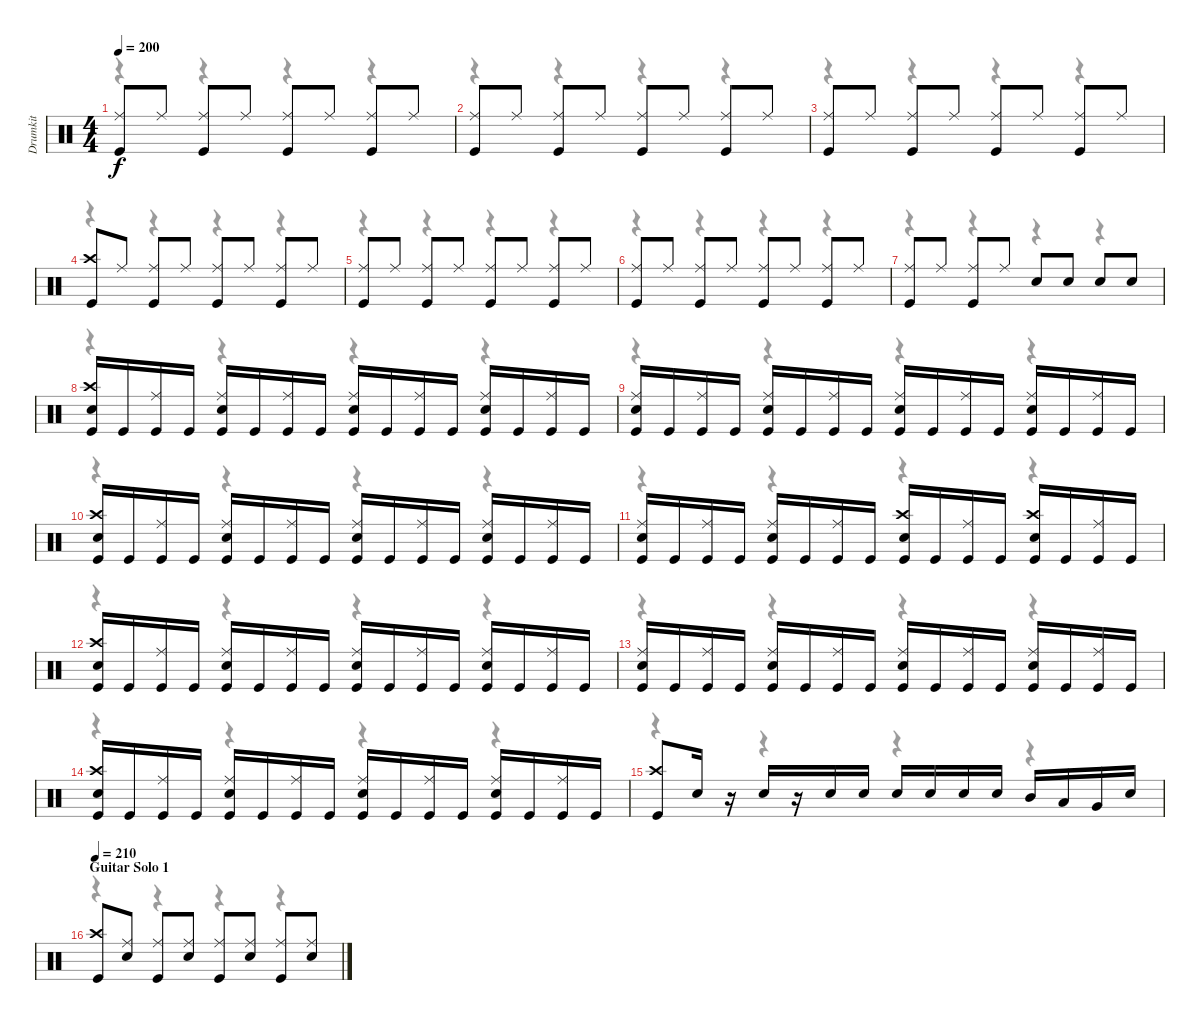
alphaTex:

\track ("Drumkit" "Drumkit") {instrument percussion}
\staff {score}
\articulation defaults
\voice
\ts (4 4)
\tempo 200
\clef neutral
\ks c
("Ride (middle)" "Kick (hit)").8{dy f} "Ride (middle)".8 ("Ride (middle)" "Kick (hit)").8 "Ride (middle)".8 ("Ride (middle)" "Kick (hit)").8 "Ride (middle)".8 ("Ride (middle)" "Kick (hit)").8 "Ride (middle)".8 |
("Ride (middle)" "Kick (hit)").8 "Ride (middle)".8 ("Ride (middle)" "Kick (hit)").8 "Ride (middle)".8 ("Ride (middle)" "Kick (hit)").8 "Ride (middle)".8 ("Ride (middle)" "Kick (hit)").8 "Ride (middle)".8 |
("Ride (middle)" "Kick (hit)").8 "Ride (middle)".8 ("Ride (middle)" "Kick (hit)").8 "Ride (middle)".8 ("Ride (middle)" "Kick (hit)").8 "Ride (middle)".8 ("Ride (middle)" "Kick (hit)").8 "Ride (middle)".8 |
("Crash high (hit)" "Kick (hit)").8 "Ride (middle)".8 ("Ride (middle)" "Kick (hit)").8 "Ride (middle)".8 ("Ride (middle)" "Kick (hit)").8 "Ride (middle)".8 ("Ride (middle)" "Kick (hit)").8 "Ride (middle)".8 |
("Ride (middle)" "Kick (hit)").8 "Ride (middle)".8 ("Ride (middle)" "Kick (hit)").8 "Ride (middle)".8 ("Ride (middle)" "Kick (hit)").8 "Ride (middle)".8 ("Ride (middle)" "Kick (hit)").8 "Ride (middle)".8 |
("Ride (middle)" "Kick (hit)").8 "Ride (middle)".8 ("Ride (middle)" "Kick (hit)").8 "Ride (middle)".8 ("Ride (middle)" "Kick (hit)").8 "Ride (middle)".8 ("Ride (middle)" "Kick (hit)").8 "Ride (middle)".8 |
("Ride (middle)" "Kick (hit)").8 "Ride (middle)".8 ("Ride (middle)" "Kick (hit)").8 "Ride (middle)".8 "Snare (hit) 2".8 "Snare (hit) 2".8 "Snare (hit) 2".8 "Snare (hit) 2".8 |
("Crash high (hit)" "Snare (hit) 2" "Kick (hit)").16 "Kick (hit)".16 ("Ride (middle)" "Kick (hit)").16 "Kick (hit)".16 ("Ride (middle)" "Snare (hit) 2" "Kick (hit)").16 "Kick (hit)".16 ("Ride (middle)" "Kick (hit)").16 "Kick (hit)".16 ("Ride (middle)" "Snare (hit) 2" "Kick (hit)").16 "Kick (hit)".16 ("Ride (middle)" "Kick (hit)").16 "Kick (hit)".16 ("Ride (middle)" "Snare (hit) 2" "Kick (hit)").16 "Kick (hit)".16 ("Ride (middle)" "Kick (hit)").16 "Kick (hit)".16 |
("Ride (middle)" "Snare (hit) 2" "Kick (hit)").16 "Kick (hit)".16 ("Ride (middle)" "Kick (hit)").16 "Kick (hit)".16 ("Ride (middle)" "Snare (hit) 2" "Kick (hit)").16 "Kick (hit)".16 ("Ride (middle)" "Kick (hit)").16 "Kick (hit)".16 ("Ride (middle)" "Snare (hit) 2" "Kick (hit)").16 "Kick (hit)".16 ("Ride (middle)" "Kick (hit)").16 "Kick (hit)".16 ("Ride (middle)" "Snare (hit) 2" "Kick (hit)").16 "Kick (hit)".16 ("Ride (middle)" "Kick (hit)").16 "Kick (hit)".16 |
("Crash high (hit)" "Snare (hit) 2" "Kick (hit)").16 "Kick (hit)".16 ("Ride (middle)" "Kick (hit)").16 "Kick (hit)".16 ("Ride (middle)" "Snare (hit) 2" "Kick (hit)").16 "Kick (hit)".16 ("Ride (middle)" "Kick (hit)").16 "Kick (hit)".16 ("Ride (middle)" "Snare (hit) 2" "Kick (hit)").16 "Kick (hit)".16 ("Ride (middle)" "Kick (hit)").16 "Kick (hit)".16 ("Ride (middle)" "Snare (hit) 2" "Kick (hit)").16 "Kick (hit)".16 ("Ride (middle)" "Kick (hit)").16 "Kick (hit)".16 |
("Ride (middle)" "Snare (hit) 2" "Kick (hit)").16 "Kick (hit)".16 ("Ride (middle)" "Kick (hit)").16 "Kick (hit)".16 ("Ride (middle)" "Snare (hit) 2" "Kick (hit)").16 "Kick (hit)".16 ("Ride (middle)" "Kick (hit)").16 "Kick (hit)".16 ("Crash high (hit)" "Snare (hit) 2" "Kick (hit)").16 "Kick (hit)".16 ("Ride (middle)" "Kick (hit)").16 "Kick (hit)".16 ("Crash high (hit)" "Snare (hit) 2" "Kick (hit)").16 "Kick (hit)".16 ("Ride (middle)" "Kick (hit)").16 "Kick (hit)".16 |
("Crash high (hit)" "Snare (hit) 2" "Kick (hit)").16 "Kick (hit)".16 ("Ride (middle)" "Kick (hit)").16 "Kick (hit)".16 ("Ride (middle)" "Snare (hit) 2" "Kick (hit)").16 "Kick (hit)".16 ("Ride (middle)" "Kick (hit)").16 "Kick (hit)".16 ("Ride (middle)" "Snare (hit) 2" "Kick (hit)").16 "Kick (hit)".16 ("Ride (middle)" "Kick (hit)").16 "Kick (hit)".16 ("Ride (middle)" "Snare (hit) 2" "Kick (hit)").16 "Kick (hit)".16 ("Ride (middle)" "Kick (hit)").16 "Kick (hit)".16 |
("Ride (middle)" "Snare (hit) 2" "Kick (hit)").16 "Kick (hit)".16 ("Ride (middle)" "Kick (hit)").16 "Kick (hit)".16 ("Ride (middle)" "Snare (hit) 2" "Kick (hit)").16 "Kick (hit)".16 ("Ride (middle)" "Kick (hit)").16 "Kick (hit)".16 ("Ride (middle)" "Snare (hit) 2" "Kick (hit)").16 "Kick (hit)".16 ("Ride (middle)" "Kick (hit)").16 "Kick (hit)".16 ("Ride (middle)" "Snare (hit) 2" "Kick (hit)").16 "Kick (hit)".16 ("Ride (middle)" "Kick (hit)").16 "Kick (hit)".16 |
("Crash high (hit)" "Snare (hit) 2" "Kick (hit)").16 "Kick (hit)".16 ("Ride (middle)" "Kick (hit)").16 "Kick (hit)".16 ("Ride (middle)" "Snare (hit) 2" "Kick (hit)").16 "Kick (hit)".16 ("Ride (middle)" "Kick (hit)").16 "Kick (hit)".16 ("Ride (middle)" "Snare (hit) 2" "Kick (hit)").16 "Kick (hit)".16 ("Ride (middle)" "Kick (hit)").16 "Kick (hit)".16 ("Ride (middle)" "Snare (hit) 2" "Kick (hit)").16 "Kick (hit)".16 ("Ride (middle)" "Kick (hit)").16 "Kick (hit)".16 |
("Crash high (hit)" "Kick (hit)").8 "Snare (hit) 2".16 r.16 "Snare (hit) 2".16 r.16 "Snare (hit) 2".16 "Snare (hit) 2".16 "Snare (hit) 2".16 "Snare (hit) 2".16 "Snare (hit) 2".16 "Snare (hit) 2".16 "Mid Tom (hit)".16 "Low Tom (hit)".16 "Very Low Tom (hit)".16 "Snare (hit) 2".16 |
\section ("" "Guitar Solo 1")
\tempo 210
("Crash high (hit)" "Kick (hit)").8 ("Ride (middle)" "Snare (hit) 2").8 ("Ride (middle)" "Kick (hit)").8 ("Ride (middle)" "Snare (hit) 2").8 ("Ride (middle)" "Kick (hit)").8 ("Ride (middle)" "Snare (hit) 2").8 ("Ride (middle)" "Kick (hit)").8 ("Ride (middle)" "Snare (hit) 2").8
\voice
\clef neutral
\ottava regular
\simile none
\ks c
r.4{dy f} r.4 r.4 r.4 |
r.4 r.4 r.4 r.4 |
r.4 r.4 r.4 r.4 |
r.4 r.4 r.4 r.4 |
r.4 r.4 r.4 r.4 |
r.4 r.4 r.4 r.4 |
r.4 r.4 r.4 r.4 |
r.4 r.4 r.4 r.4 |
r.4 r.4 r.4 r.4 |
r.4 r.4 r.4 r.4 |
r.4 r.4 r.4 r.4 |
r.4 r.4 r.4 r.4 |
r.4 r.4 r.4 r.4 |
r.4 r.4 r.4 r.4 |
r.4 r.4 r.4 r.4 |
r.4 r.4 r.4 r.4
